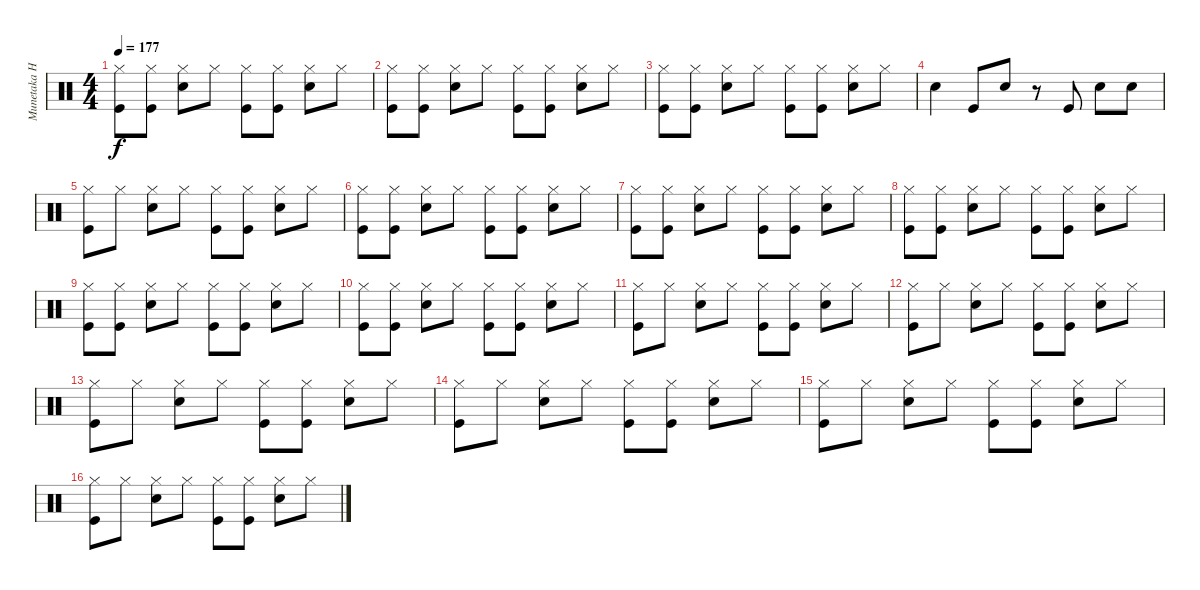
\track ("Munetaka Higuchi" "Munetaka H") {instrument percussion}
\staff {score}
\articulation defaults
\ts (4 4)
\tempo 177
\clef neutral
\ks c
("Hi-Hat (closed)" "Kick (hit)").8{dy f} ("Hi-Hat (closed)" "Kick (hit)").8 ("Hi-Hat (closed)" "Snare (hit) 2").8 "Hi-Hat (closed)".8 ("Hi-Hat (closed)" "Kick (hit)").8 ("Hi-Hat (closed)" "Kick (hit)").8 ("Hi-Hat (closed)" "Snare (hit) 2").8 "Hi-Hat (closed)".8 |
("Hi-Hat (closed)" "Kick (hit)").8 ("Hi-Hat (closed)" "Kick (hit)").8 ("Hi-Hat (closed)" "Snare (hit) 2").8 "Hi-Hat (closed)".8 ("Hi-Hat (closed)" "Kick (hit)").8 ("Hi-Hat (closed)" "Kick (hit)").8 ("Hi-Hat (closed)" "Snare (hit) 2").8 "Hi-Hat (closed)".8 |
("Hi-Hat (closed)" "Kick (hit)").8 ("Hi-Hat (closed)" "Kick (hit)").8 ("Hi-Hat (closed)" "Snare (hit) 2").8 "Hi-Hat (closed)".8 ("Hi-Hat (closed)" "Kick (hit)").8 ("Hi-Hat (closed)" "Kick (hit)").8 ("Hi-Hat (closed)" "Snare (hit) 2").8 "Hi-Hat (closed)".8 |
"Snare (hit) 2".4 "Kick (hit)".8 "Snare (hit) 2".8 r.8 "Kick (hit)".8 "Snare (hit) 2".8 "Snare (hit) 2".8 |
("Hi-Hat (closed)" "Kick (hit)").8 "Hi-Hat (closed)".8 ("Hi-Hat (closed)" "Snare (hit) 2").8 "Hi-Hat (closed)".8 ("Hi-Hat (closed)" "Kick (hit)").8 ("Hi-Hat (closed)" "Kick (hit)").8 ("Hi-Hat (closed)" "Snare (hit) 2").8 "Hi-Hat (closed)".8 |
("Hi-Hat (closed)" "Kick (hit)").8 ("Hi-Hat (closed)" "Kick (hit)").8 ("Hi-Hat (closed)" "Snare (hit) 2").8 "Hi-Hat (closed)".8 ("Hi-Hat (closed)" "Kick (hit)").8 ("Hi-Hat (closed)" "Kick (hit)").8 ("Hi-Hat (closed)" "Snare (hit) 2").8 "Hi-Hat (closed)".8 |
("Hi-Hat (closed)" "Kick (hit)").8 ("Hi-Hat (closed)" "Kick (hit)").8 ("Hi-Hat (closed)" "Snare (hit) 2").8 "Hi-Hat (closed)".8 ("Hi-Hat (closed)" "Kick (hit)").8 ("Hi-Hat (closed)" "Kick (hit)").8 ("Hi-Hat (closed)" "Snare (hit) 2").8 "Hi-Hat (closed)".8 |
("Hi-Hat (closed)" "Kick (hit)").8 ("Hi-Hat (closed)" "Kick (hit)").8 ("Hi-Hat (closed)" "Snare (hit) 2").8 "Hi-Hat (closed)".8 ("Hi-Hat (closed)" "Kick (hit)").8 ("Hi-Hat (closed)" "Kick (hit)").8 ("Hi-Hat (closed)" "Snare (hit) 2").8 "Hi-Hat (closed)".8 |
("Hi-Hat (closed)" "Kick (hit)").8 ("Hi-Hat (closed)" "Kick (hit)").8 ("Hi-Hat (closed)" "Snare (hit) 2").8 "Hi-Hat (closed)".8 ("Hi-Hat (closed)" "Kick (hit)").8 ("Hi-Hat (closed)" "Kick (hit)").8 ("Hi-Hat (closed)" "Snare (hit) 2").8 "Hi-Hat (closed)".8 |
("Hi-Hat (closed)" "Kick (hit)").8 ("Hi-Hat (closed)" "Kick (hit)").8 ("Hi-Hat (closed)" "Snare (hit) 2").8 "Hi-Hat (closed)".8 ("Hi-Hat (closed)" "Kick (hit)").8 ("Hi-Hat (closed)" "Kick (hit)").8 ("Hi-Hat (closed)" "Snare (hit) 2").8 "Hi-Hat (closed)".8 |
("Hi-Hat (closed)" "Kick (hit)").8 "Hi-Hat (closed)".8 ("Hi-Hat (closed)" "Snare (hit) 2").8 "Hi-Hat (closed)".8 ("Hi-Hat (closed)" "Kick (hit)").8 ("Hi-Hat (closed)" "Kick (hit)").8 ("Hi-Hat (closed)" "Snare (hit) 2").8 "Hi-Hat (closed)".8 |
("Hi-Hat (closed)" "Kick (hit)").8 "Hi-Hat (closed)".8 ("Hi-Hat (closed)" "Snare (hit) 2").8 "Hi-Hat (closed)".8 ("Hi-Hat (closed)" "Kick (hit)").8 ("Hi-Hat (closed)" "Kick (hit)").8 ("Hi-Hat (closed)" "Snare (hit) 2").8 "Hi-Hat (closed)".8 |
("Hi-Hat (closed)" "Kick (hit)").8 "Hi-Hat (closed)".8 ("Hi-Hat (closed)" "Snare (hit) 2").8 "Hi-Hat (closed)".8 ("Hi-Hat (closed)" "Kick (hit)").8 ("Hi-Hat (closed)" "Kick (hit)").8 ("Hi-Hat (closed)" "Snare (hit) 2").8 "Hi-Hat (closed)".8 |
("Hi-Hat (closed)" "Kick (hit)").8 "Hi-Hat (closed)".8 ("Hi-Hat (closed)" "Snare (hit) 2").8 "Hi-Hat (closed)".8 ("Hi-Hat (closed)" "Kick (hit)").8 ("Hi-Hat (closed)" "Kick (hit)").8 ("Hi-Hat (closed)" "Snare (hit) 2").8 "Hi-Hat (closed)".8 |
("Hi-Hat (closed)" "Kick (hit)").8 "Hi-Hat (closed)".8 ("Hi-Hat (closed)" "Snare (hit) 2").8 "Hi-Hat (closed)".8 ("Hi-Hat (closed)" "Kick (hit)").8 ("Hi-Hat (closed)" "Kick (hit)").8 ("Hi-Hat (closed)" "Snare (hit) 2").8 "Hi-Hat (closed)".8 |
("Hi-Hat (closed)" "Kick (hit)").8 "Hi-Hat (closed)".8 ("Hi-Hat (closed)" "Snare (hit) 2").8 "Hi-Hat (closed)".8 ("Hi-Hat (closed)" "Kick (hit)").8 ("Hi-Hat (closed)" "Kick (hit)").8 ("Hi-Hat (closed)" "Snare (hit) 2").8 "Hi-Hat (closed)".8
